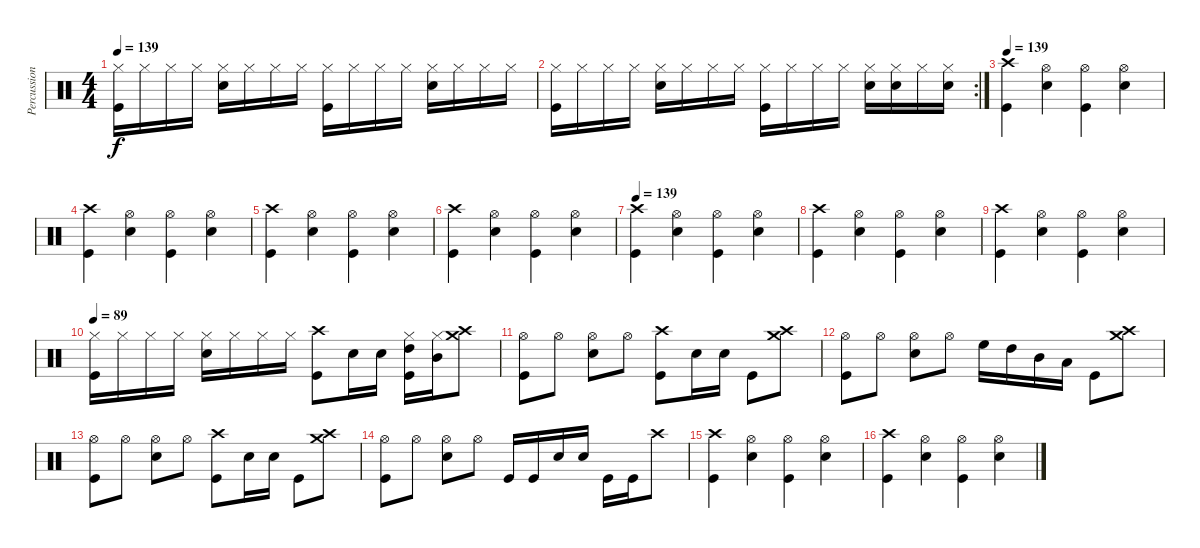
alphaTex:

\track ("Percussion" "Percussion") {instrument percussion}
\staff {score}
\articulation defaults
\ts (4 4)
\tempo 139
\clef neutral
\ks c
("Hi-Hat (closed)" "Kick (hit)").16{dy f} "Hi-Hat (closed)".16 "Hi-Hat (closed)".16 "Hi-Hat (closed)".16 ("Hi-Hat (closed)" "Snare (hit) 2").16 "Hi-Hat (closed)".16 "Hi-Hat (closed)".16 "Hi-Hat (closed)".16 ("Hi-Hat (closed)" "Kick (hit)").16 "Hi-Hat (closed)".16 "Hi-Hat (closed)".16 "Hi-Hat (closed)".16 ("Hi-Hat (closed)" "Snare (hit) 2").16 "Hi-Hat (closed)".16 "Hi-Hat (closed)".16 "Hi-Hat (closed)".16 |
\rc 2
("Hi-Hat (closed)" "Kick (hit)").16 "Hi-Hat (closed)".16 "Hi-Hat (closed)".16 "Hi-Hat (closed)".16 ("Hi-Hat (closed)" "Snare (hit) 2").16 "Hi-Hat (closed)".16 "Hi-Hat (closed)".16 "Hi-Hat (closed)".16 ("Hi-Hat (closed)" "Kick (hit)").16 "Hi-Hat (closed)".16 "Hi-Hat (closed)".16 "Hi-Hat (closed)".16 ("Hi-Hat (closed)" "Snare (hit) 2").16 ("Hi-Hat (closed)" "Snare (hit) 2").16 "Hi-Hat (closed)".16 ("Hi-Hat (closed)" "Snare (hit) 2").16 |
\tempo 139
("Crash high (hit)" "Kick (hit)").4{volume 15} ("Hi-Hat (open)" "Snare (hit) 2").4 ("Hi-Hat (open)" "Kick (hit)").4 ("Hi-Hat (open)" "Snare (hit) 2").4 |
("Crash high (hit)" "Kick (hit)").4{volume 15} ("Hi-Hat (open)" "Snare (hit) 2").4 ("Hi-Hat (open)" "Kick (hit)").4 ("Hi-Hat (open)" "Snare (hit) 2").4 |
("Crash high (hit)" "Kick (hit)").4{volume 15} ("Hi-Hat (open)" "Snare (hit) 2").4 ("Hi-Hat (open)" "Kick (hit)").4 ("Hi-Hat (open)" "Snare (hit) 2").4 |
("Crash high (hit)" "Kick (hit)").4{volume 15} ("Hi-Hat (open)" "Snare (hit) 2").4 ("Hi-Hat (open)" "Kick (hit)").4 ("Hi-Hat (open)" "Snare (hit) 2").4 |
\tempo 139
("Crash high (hit)" "Kick (hit)").4{volume 15} ("Hi-Hat (open)" "Snare (hit) 2").4 ("Hi-Hat (open)" "Kick (hit)").4 ("Hi-Hat (open)" "Snare (hit) 2").4 |
("Crash high (hit)" "Kick (hit)").4{volume 15} ("Hi-Hat (open)" "Snare (hit) 2").4 ("Hi-Hat (open)" "Kick (hit)").4 ("Hi-Hat (open)" "Snare (hit) 2").4 |
("Crash high (hit)" "Kick (hit)").4{volume 15} ("Hi-Hat (open)" "Snare (hit) 2").4 ("Hi-Hat (open)" "Kick (hit)").4 ("Hi-Hat (open)" "Snare (hit) 2").4 |
\tempo 89
("Hi-Hat (closed)" "Kick (hit)").16 "Hi-Hat (closed)".16 "Hi-Hat (closed)".16 "Hi-Hat (closed)".16 ("Hi-Hat (closed)" "Snare (hit) 2").16 "Hi-Hat (closed)".16 "Hi-Hat (closed)".16 "Hi-Hat (closed)".16 ("Crash high (hit)" "Kick (hit)").8 "Snare (hit) 2".16 "Snare (hit) 2".16 ("Hi-Hat (closed)" "High Tom (hit)" "Kick (hit)").16 ("Hi-Hat (closed)" "Mid Tom (hit)").16 ("Crash high (hit)" "Crash medium (hit)").8 |
("Hi-Hat (open)" "Kick (hit)").8 "Hi-Hat (open)".8 ("Hi-Hat (open)" "Snare (hit) 2").8 "Hi-Hat (open)".8 ("Crash high (hit)" "Kick (hit)").8 "Snare (hit) 2".16 "Snare (hit) 2".16 "Kick (hit)".8 ("Crash high (hit)" "Crash medium (hit)").8 |
("Hi-Hat (open)" "Kick (hit)").8 "Hi-Hat (open)".8 ("Hi-Hat (open)" "Snare (hit) 2").8 "Hi-Hat (open)".8 "High Floor Tom (hit)".16 "High Tom (hit)".16 "Mid Tom (hit)".16 "Low Tom (hit)".16 "Kick (hit)".8 ("Crash medium (hit)" "Crash high (hit)").8 |
("Hi-Hat (open)" "Kick (hit)").8 "Hi-Hat (open)".8 ("Hi-Hat (open)" "Snare (hit) 2").8 "Hi-Hat (open)".8 ("Crash high (hit)" "Kick (hit)").8 "Snare (hit) 2".16 "Snare (hit) 2".16 "Kick (hit)".8 ("Crash high (hit)" "Crash medium (hit)").8 |
("Hi-Hat (open)" "Kick (hit)").8 "Hi-Hat (open)".8 ("Hi-Hat (open)" "Snare (hit) 2").8 "Hi-Hat (open)".8 "Kick (hit)".16 "Kick (hit)".16 "Snare (hit) 2".16 "Snare (hit) 2".16 "Kick (hit)".16 "Kick (hit)".16 "Crash high (hit)".8 |
("Crash high (hit)" "Kick (hit)").4{volume 15} ("Hi-Hat (open)" "Snare (hit) 2").4 ("Hi-Hat (open)" "Kick (hit)").4 ("Hi-Hat (open)" "Snare (hit) 2").4 |
("Crash high (hit)" "Kick (hit)").4{volume 15} ("Hi-Hat (open)" "Snare (hit) 2").4 ("Hi-Hat (open)" "Kick (hit)").4 ("Hi-Hat (open)" "Snare (hit) 2").4
